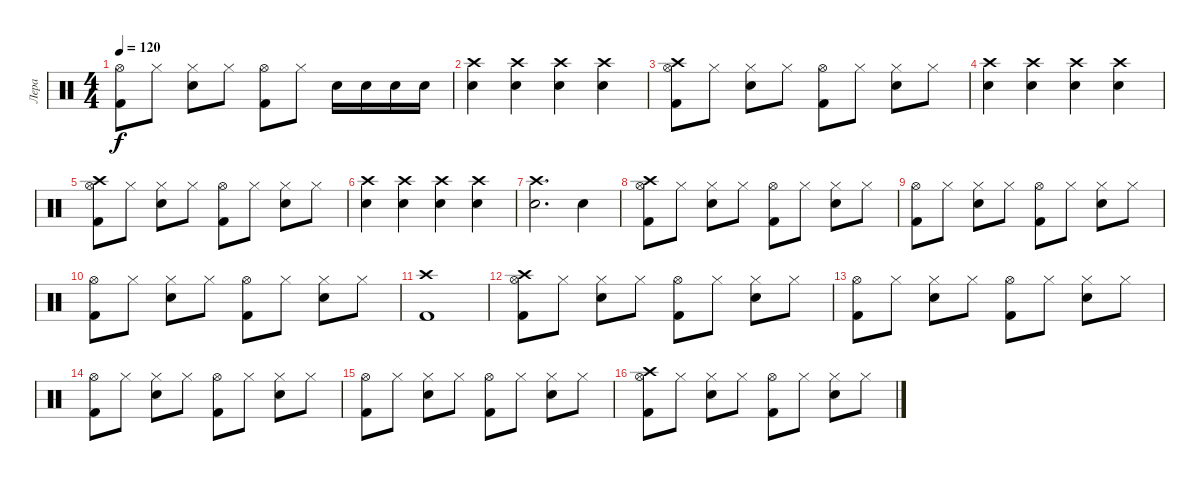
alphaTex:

\track ("Лера" "Лера") {instrument percussion}
\staff {score}
\articulation defaults
\ts (4 4)
\tempo 120
\clef neutral
\ks c
("Hi-Hat (open)" "Kick (hit) 2").8{dy f} "Hi-Hat (closed)".8 ("Hi-Hat (closed)" "Electric Snare (hit)").8 "Hi-Hat (closed)".8 ("Hi-Hat (open)" "Kick (hit) 2").8 "Hi-Hat (closed)".8 "Electric Snare (hit)".16 "Electric Snare (hit)".16 "Electric Snare (hit)".16 "Electric Snare (hit)".16 |
("Electric Snare (hit)" "Crash high (hit)").4 ("Electric Snare (hit)" "Crash high (hit)").4 ("Electric Snare (hit)" "Crash high (hit)").4 ("Electric Snare (hit)" "Crash high (hit)").4 |
("Hi-Hat (open)" "Kick (hit) 2" "Crash high (hit)").8 "Hi-Hat (closed)".8 ("Hi-Hat (closed)" "Electric Snare (hit)").8 "Hi-Hat (closed)".8 ("Hi-Hat (open)" "Kick (hit) 2").8 "Hi-Hat (closed)".8 ("Hi-Hat (closed)" "Electric Snare (hit)").8 "Hi-Hat (closed)".8 |
("Electric Snare (hit)" "Crash high (hit)").4 ("Electric Snare (hit)" "Crash high (hit)").4 ("Electric Snare (hit)" "Crash high (hit)").4 ("Electric Snare (hit)" "Crash high (hit)").4 |
("Hi-Hat (open)" "Kick (hit) 2" "Crash high (hit)").8 "Hi-Hat (closed)".8 ("Hi-Hat (closed)" "Electric Snare (hit)").8 "Hi-Hat (closed)".8 ("Hi-Hat (open)" "Kick (hit) 2").8 "Hi-Hat (closed)".8 ("Hi-Hat (closed)" "Electric Snare (hit)").8 "Hi-Hat (closed)".8 |
("Electric Snare (hit)" "Crash high (hit)").4 ("Electric Snare (hit)" "Crash high (hit)").4 ("Electric Snare (hit)" "Crash high (hit)").4 ("Electric Snare (hit)" "Crash high (hit)").4 |
("Electric Snare (hit)" "Crash high (hit)").2{d} "Electric Snare (hit)".4 |
("Hi-Hat (open)" "Kick (hit) 2" "Crash high (hit)").8 "Hi-Hat (closed)".8 ("Hi-Hat (closed)" "Electric Snare (hit)").8 "Hi-Hat (closed)".8 ("Hi-Hat (open)" "Kick (hit) 2").8 "Hi-Hat (closed)".8 ("Hi-Hat (closed)" "Electric Snare (hit)").8 "Hi-Hat (closed)".8 |
("Hi-Hat (open)" "Kick (hit) 2").8 "Hi-Hat (closed)".8 ("Hi-Hat (closed)" "Electric Snare (hit)").8 "Hi-Hat (closed)".8 ("Hi-Hat (open)" "Kick (hit) 2").8 "Hi-Hat (closed)".8 ("Hi-Hat (closed)" "Electric Snare (hit)").8 "Hi-Hat (closed)".8 |
("Hi-Hat (open)" "Kick (hit) 2").8 "Hi-Hat (closed)".8 ("Hi-Hat (closed)" "Electric Snare (hit)").8 "Hi-Hat (closed)".8 ("Hi-Hat (open)" "Kick (hit) 2").8 "Hi-Hat (closed)".8 ("Hi-Hat (closed)" "Electric Snare (hit)").8 "Hi-Hat (closed)".8 |
("Crash high (hit)" "Kick (hit) 2").1 |
("Hi-Hat (open)" "Kick (hit) 2" "Crash high (hit)").8 "Hi-Hat (closed)".8 ("Hi-Hat (closed)" "Electric Snare (hit)").8 "Hi-Hat (closed)".8 ("Hi-Hat (open)" "Kick (hit) 2").8 "Hi-Hat (closed)".8 ("Hi-Hat (closed)" "Electric Snare (hit)").8 "Hi-Hat (closed)".8 |
("Hi-Hat (open)" "Kick (hit) 2").8 "Hi-Hat (closed)".8 ("Hi-Hat (closed)" "Electric Snare (hit)").8 "Hi-Hat (closed)".8 ("Hi-Hat (open)" "Kick (hit) 2").8 "Hi-Hat (closed)".8 ("Hi-Hat (closed)" "Electric Snare (hit)").8 "Hi-Hat (closed)".8 |
("Hi-Hat (open)" "Kick (hit) 2").8 "Hi-Hat (closed)".8 ("Hi-Hat (closed)" "Electric Snare (hit)").8 "Hi-Hat (closed)".8 ("Hi-Hat (open)" "Kick (hit) 2").8 "Hi-Hat (closed)".8 ("Hi-Hat (closed)" "Electric Snare (hit)").8 "Hi-Hat (closed)".8 |
("Hi-Hat (open)" "Kick (hit) 2").8 "Hi-Hat (closed)".8 ("Hi-Hat (closed)" "Electric Snare (hit)").8 "Hi-Hat (closed)".8 ("Hi-Hat (open)" "Kick (hit) 2").8 "Hi-Hat (closed)".8 ("Hi-Hat (closed)" "Electric Snare (hit)").8 "Hi-Hat (closed)".8 |
("Hi-Hat (open)" "Kick (hit) 2" "Crash high (hit)").8 "Hi-Hat (closed)".8 ("Hi-Hat (closed)" "Electric Snare (hit)").8 "Hi-Hat (closed)".8 ("Hi-Hat (open)" "Kick (hit) 2").8 "Hi-Hat (closed)".8 ("Hi-Hat (closed)" "Electric Snare (hit)").8 "Hi-Hat (closed)".8
